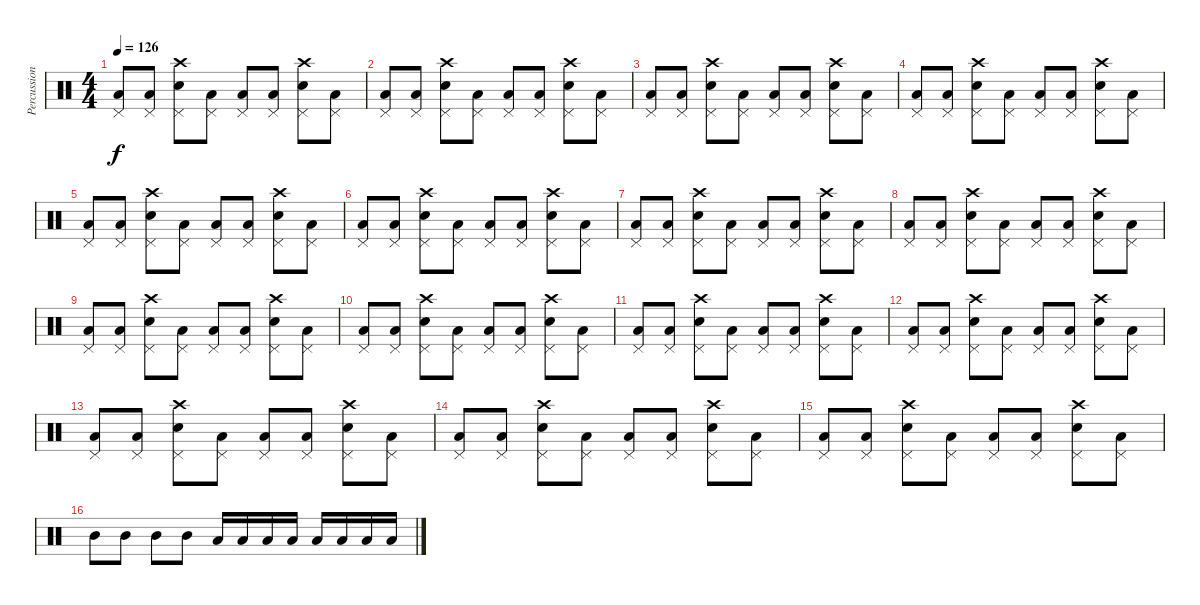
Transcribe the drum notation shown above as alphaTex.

\track ("Percussion" "Percussion") {instrument percussion}
\staff {score}
\articulation defaults
\ts (4 4)
\tempo 126
\clef neutral
\ks c
("Low Floor Tom (hit)" "Pedal Hi-Hat (hit)").8{dy f} ("Pedal Hi-Hat (hit)" "Low Tom (hit)").8 ("Electric Snare (hit)" "Crash high (hit)" "Pedal Hi-Hat (hit)").8 ("Pedal Hi-Hat (hit)" "Low Tom (hit)").8 ("Low Floor Tom (hit)" "Pedal Hi-Hat (hit)").8 ("Low Floor Tom (hit)" "Pedal Hi-Hat (hit)").8 ("Electric Snare (hit)" "Crash high (hit)" "Pedal Hi-Hat (hit)").8 ("Pedal Hi-Hat (hit)" "Low Tom (hit)").8 |
("Low Floor Tom (hit)" "Pedal Hi-Hat (hit)").8 ("Pedal Hi-Hat (hit)" "Low Tom (hit)").8 ("Electric Snare (hit)" "Crash high (hit)" "Pedal Hi-Hat (hit)").8 ("Pedal Hi-Hat (hit)" "Low Tom (hit)").8 ("Low Floor Tom (hit)" "Pedal Hi-Hat (hit)").8 ("Low Floor Tom (hit)" "Pedal Hi-Hat (hit)").8 ("Electric Snare (hit)" "Crash high (hit)" "Pedal Hi-Hat (hit)").8 ("Pedal Hi-Hat (hit)" "Low Tom (hit)").8 |
("Low Floor Tom (hit)" "Pedal Hi-Hat (hit)").8 ("Pedal Hi-Hat (hit)" "Low Tom (hit)").8 ("Electric Snare (hit)" "Crash high (hit)" "Pedal Hi-Hat (hit)").8 ("Pedal Hi-Hat (hit)" "Low Tom (hit)").8 ("Low Floor Tom (hit)" "Pedal Hi-Hat (hit)").8 ("Low Floor Tom (hit)" "Pedal Hi-Hat (hit)").8 ("Electric Snare (hit)" "Crash high (hit)" "Pedal Hi-Hat (hit)").8 ("Pedal Hi-Hat (hit)" "Low Tom (hit)").8 |
("Low Floor Tom (hit)" "Pedal Hi-Hat (hit)").8 ("Pedal Hi-Hat (hit)" "Low Tom (hit)").8 ("Electric Snare (hit)" "Crash high (hit)" "Pedal Hi-Hat (hit)").8 ("Pedal Hi-Hat (hit)" "Low Tom (hit)").8 ("Low Floor Tom (hit)" "Pedal Hi-Hat (hit)").8 ("Low Floor Tom (hit)" "Pedal Hi-Hat (hit)").8 ("Electric Snare (hit)" "Crash high (hit)" "Pedal Hi-Hat (hit)").8 ("Pedal Hi-Hat (hit)" "Low Tom (hit)").8 |
("Low Floor Tom (hit)" "Pedal Hi-Hat (hit)").8 ("Pedal Hi-Hat (hit)" "Low Tom (hit)").8 ("Electric Snare (hit)" "Crash high (hit)" "Pedal Hi-Hat (hit)").8 ("Pedal Hi-Hat (hit)" "Low Tom (hit)").8 ("Low Floor Tom (hit)" "Pedal Hi-Hat (hit)").8 ("Low Floor Tom (hit)" "Pedal Hi-Hat (hit)").8 ("Electric Snare (hit)" "Crash high (hit)" "Pedal Hi-Hat (hit)").8 ("Pedal Hi-Hat (hit)" "Low Tom (hit)").8 |
("Low Floor Tom (hit)" "Pedal Hi-Hat (hit)").8 ("Pedal Hi-Hat (hit)" "Low Tom (hit)").8 ("Electric Snare (hit)" "Crash high (hit)" "Pedal Hi-Hat (hit)").8 ("Pedal Hi-Hat (hit)" "Low Tom (hit)").8 ("Low Floor Tom (hit)" "Pedal Hi-Hat (hit)").8 ("Low Floor Tom (hit)" "Pedal Hi-Hat (hit)").8 ("Electric Snare (hit)" "Crash high (hit)" "Pedal Hi-Hat (hit)").8 ("Pedal Hi-Hat (hit)" "Low Tom (hit)").8 |
("Low Floor Tom (hit)" "Pedal Hi-Hat (hit)").8 ("Pedal Hi-Hat (hit)" "Low Tom (hit)").8 ("Electric Snare (hit)" "Crash high (hit)" "Pedal Hi-Hat (hit)").8 ("Pedal Hi-Hat (hit)" "Low Tom (hit)").8 ("Low Floor Tom (hit)" "Pedal Hi-Hat (hit)").8 ("Low Floor Tom (hit)" "Pedal Hi-Hat (hit)").8 ("Electric Snare (hit)" "Crash high (hit)" "Pedal Hi-Hat (hit)").8 ("Pedal Hi-Hat (hit)" "Low Tom (hit)").8 |
("Low Floor Tom (hit)" "Pedal Hi-Hat (hit)").8 ("Pedal Hi-Hat (hit)" "Low Tom (hit)").8 ("Electric Snare (hit)" "Crash high (hit)" "Pedal Hi-Hat (hit)").8 ("Pedal Hi-Hat (hit)" "Low Tom (hit)").8 ("Low Floor Tom (hit)" "Pedal Hi-Hat (hit)").8 ("Low Floor Tom (hit)" "Pedal Hi-Hat (hit)").8 ("Electric Snare (hit)" "Crash high (hit)" "Pedal Hi-Hat (hit)").8 ("Pedal Hi-Hat (hit)" "Low Tom (hit)").8 |
("Low Floor Tom (hit)" "Pedal Hi-Hat (hit)").8 ("Pedal Hi-Hat (hit)" "Low Tom (hit)").8 ("Electric Snare (hit)" "Crash high (hit)" "Pedal Hi-Hat (hit)").8 ("Pedal Hi-Hat (hit)" "Low Tom (hit)").8 ("Low Floor Tom (hit)" "Pedal Hi-Hat (hit)").8 ("Low Floor Tom (hit)" "Pedal Hi-Hat (hit)").8 ("Electric Snare (hit)" "Crash high (hit)" "Pedal Hi-Hat (hit)").8 ("Pedal Hi-Hat (hit)" "Low Tom (hit)").8 |
("Low Floor Tom (hit)" "Pedal Hi-Hat (hit)").8 ("Pedal Hi-Hat (hit)" "Low Tom (hit)").8 ("Electric Snare (hit)" "Crash high (hit)" "Pedal Hi-Hat (hit)").8 ("Pedal Hi-Hat (hit)" "Low Tom (hit)").8 ("Low Floor Tom (hit)" "Pedal Hi-Hat (hit)").8 ("Low Floor Tom (hit)" "Pedal Hi-Hat (hit)").8 ("Electric Snare (hit)" "Crash high (hit)" "Pedal Hi-Hat (hit)").8 ("Pedal Hi-Hat (hit)" "Low Tom (hit)").8 |
("Low Floor Tom (hit)" "Pedal Hi-Hat (hit)").8 ("Pedal Hi-Hat (hit)" "Low Tom (hit)").8 ("Electric Snare (hit)" "Crash high (hit)" "Pedal Hi-Hat (hit)").8 ("Pedal Hi-Hat (hit)" "Low Tom (hit)").8 ("Low Floor Tom (hit)" "Pedal Hi-Hat (hit)").8 ("Low Floor Tom (hit)" "Pedal Hi-Hat (hit)").8 ("Electric Snare (hit)" "Crash high (hit)" "Pedal Hi-Hat (hit)").8 ("Pedal Hi-Hat (hit)" "Low Tom (hit)").8 |
("Low Floor Tom (hit)" "Pedal Hi-Hat (hit)").8 ("Pedal Hi-Hat (hit)" "Low Tom (hit)").8 ("Electric Snare (hit)" "Crash high (hit)" "Pedal Hi-Hat (hit)").8 ("Pedal Hi-Hat (hit)" "Low Tom (hit)").8 ("Low Floor Tom (hit)" "Pedal Hi-Hat (hit)").8 ("Low Floor Tom (hit)" "Pedal Hi-Hat (hit)").8 ("Electric Snare (hit)" "Crash high (hit)" "Pedal Hi-Hat (hit)").8 ("Pedal Hi-Hat (hit)" "Low Tom (hit)").8 |
("Low Floor Tom (hit)" "Pedal Hi-Hat (hit)").8 ("Pedal Hi-Hat (hit)" "Low Tom (hit)").8 ("Electric Snare (hit)" "Crash high (hit)" "Pedal Hi-Hat (hit)").8 ("Pedal Hi-Hat (hit)" "Low Tom (hit)").8 ("Low Floor Tom (hit)" "Pedal Hi-Hat (hit)").8 ("Low Floor Tom (hit)" "Pedal Hi-Hat (hit)").8 ("Electric Snare (hit)" "Crash high (hit)" "Pedal Hi-Hat (hit)").8 ("Pedal Hi-Hat (hit)" "Low Tom (hit)").8 |
("Low Floor Tom (hit)" "Pedal Hi-Hat (hit)").8 ("Pedal Hi-Hat (hit)" "Low Tom (hit)").8 ("Electric Snare (hit)" "Crash high (hit)" "Pedal Hi-Hat (hit)").8 ("Pedal Hi-Hat (hit)" "Low Tom (hit)").8 ("Low Floor Tom (hit)" "Pedal Hi-Hat (hit)").8 ("Low Floor Tom (hit)" "Pedal Hi-Hat (hit)").8 ("Electric Snare (hit)" "Crash high (hit)" "Pedal Hi-Hat (hit)").8 ("Pedal Hi-Hat (hit)" "Low Tom (hit)").8 |
("Low Floor Tom (hit)" "Pedal Hi-Hat (hit)").8 ("Pedal Hi-Hat (hit)" "Low Tom (hit)").8 ("Electric Snare (hit)" "Crash high (hit)" "Pedal Hi-Hat (hit)").8 ("Pedal Hi-Hat (hit)" "Low Tom (hit)").8 ("Low Floor Tom (hit)" "Pedal Hi-Hat (hit)").8 ("Low Floor Tom (hit)" "Pedal Hi-Hat (hit)").8 ("Electric Snare (hit)" "Crash high (hit)" "Pedal Hi-Hat (hit)").8 ("Pedal Hi-Hat (hit)" "Low Tom (hit)").8 |
"Mid Tom (hit)".8 "Mid Tom (hit)".8 "Mid Tom (hit)".8 "Mid Tom (hit)".8 "Low Tom (hit)".16 "Low Tom (hit)".16 "Low Tom (hit)".16 "Low Tom (hit)".16 "Low Tom (hit)".16 "Low Tom (hit)".16 "Low Tom (hit)".16 "Low Tom (hit)".16
